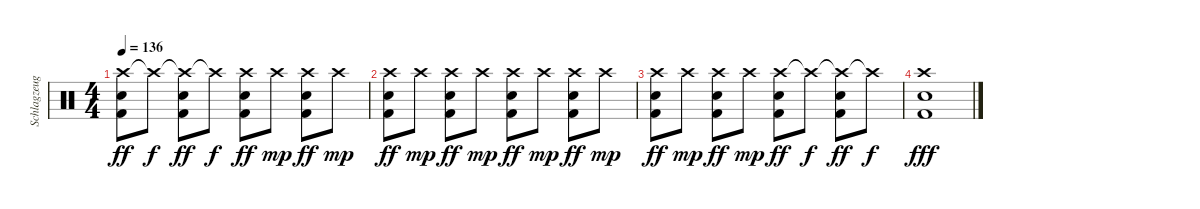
\track ("Schlagzeug - der Hund Marie" "Schlagzeug") {instrument percussion}
\staff {score}
\articulation defaults
\ts (4 4)
\tempo 136
\clef neutral
\ks c
("Crash high (hit)" "Snare (hit) 2" "Kick (hit) 2").8{dy ff} "Crash high (hit)"{t}.8{dy f} ("Crash high (hit)"{t} "Snare (hit) 2" "Kick (hit) 2").8{dy ff} "Crash high (hit)"{t}.8{dy f} ("Crash high (hit)" "Snare (hit) 2" "Kick (hit) 2").8{dy ff} "Crash high (hit)".8{dy mp} ("Crash high (hit)" "Snare (hit) 2" "Kick (hit) 2").8{dy ff} "Crash high (hit)".8{dy mp} |
("Crash high (hit)" "Snare (hit) 2" "Kick (hit) 2").8{dy ff} "Crash high (hit)".8{dy mp} ("Crash high (hit)" "Snare (hit) 2" "Kick (hit) 2").8{dy ff} "Crash high (hit)".8{dy mp} ("Crash high (hit)" "Snare (hit) 2" "Kick (hit) 2").8{dy ff} "Crash high (hit)".8{dy mp} ("Crash high (hit)" "Snare (hit) 2" "Kick (hit) 2").8{dy ff} "Crash high (hit)".8{dy mp} |
("Crash high (hit)" "Snare (hit) 2" "Kick (hit) 2").8{dy ff} "Crash high (hit)".8{dy mp} ("Crash high (hit)" "Snare (hit) 2" "Kick (hit) 2").8{dy ff} "Crash high (hit)".8{dy mp} ("Crash high (hit)" "Snare (hit) 2" "Kick (hit) 2").8{dy ff} "Crash high (hit)"{t}.8{dy f} ("Crash high (hit)"{t} "Snare (hit) 2" "Kick (hit) 2").8{dy ff} "Crash high (hit)"{t}.8{dy f} |
("Crash high (hit)" "Snare (hit) 2" "Kick (hit) 2").1{dy fff}
